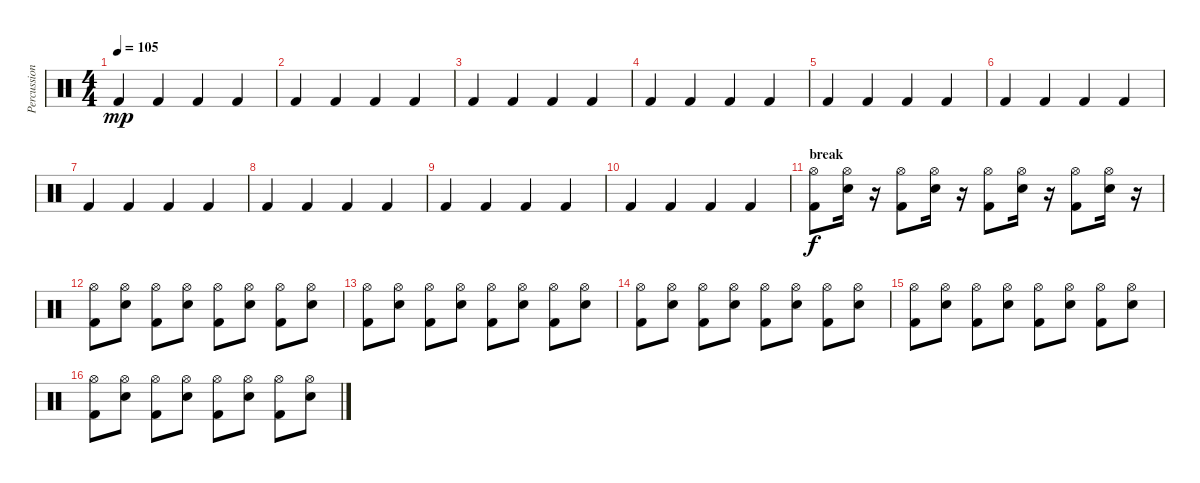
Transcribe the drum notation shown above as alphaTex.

\track ("Percussions" "Percussion") {instrument percussion}
\staff {score}
\articulation defaults
\ts (4 4)
\tempo 105
\clef neutral
\ks c "Kick (hit) 2".4{dy mp} "Kick (hit) 2".4 "Kick (hit) 2".4 "Kick (hit) 2".4
|
"Kick (hit) 2".4 "Kick (hit) 2".4 "Kick (hit) 2".4 "Kick (hit) 2".4 |
"Kick (hit) 2".4 "Kick (hit) 2".4 "Kick (hit) 2".4 "Kick (hit) 2".4 |
"Kick (hit) 2".4 "Kick (hit) 2".4 "Kick (hit) 2".4 "Kick (hit) 2".4 |
"Kick (hit) 2".4 "Kick (hit) 2".4 "Kick (hit) 2".4 "Kick (hit) 2".4 |
"Kick (hit) 2".4 "Kick (hit) 2".4 "Kick (hit) 2".4 "Kick (hit) 2".4 |
"Kick (hit) 2".4 "Kick (hit) 2".4 "Kick (hit) 2".4 "Kick (hit) 2".4 |
"Kick (hit) 2".4 "Kick (hit) 2".4 "Kick (hit) 2".4 "Kick (hit) 2".4 |
"Kick (hit) 2".4 "Kick (hit) 2".4 "Kick (hit) 2".4 "Kick (hit) 2".4 |
"Kick (hit) 2".4 "Kick (hit) 2".4 "Kick (hit) 2".4 "Kick (hit) 2".4 |
\section ("" "break")
("Hi-Hat (open)" "Kick (hit) 2").8{dy f} ("Hi-Hat (open)" "Electric Snare (hit)").16 r.16 ("Hi-Hat (open)" "Kick (hit) 2").8 ("Hi-Hat (open)" "Electric Snare (hit)").16 r.16 ("Hi-Hat (open)" "Kick (hit) 2").8 ("Hi-Hat (open)" "Electric Snare (hit)").16 r.16 ("Hi-Hat (open)" "Kick (hit) 2").8 ("Hi-Hat (open)" "Electric Snare (hit)").16 r.16 |
("Hi-Hat (open)" "Kick (hit) 2").8 ("Hi-Hat (open)" "Electric Snare (hit)").8 ("Hi-Hat (open)" "Kick (hit) 2").8 ("Hi-Hat (open)" "Electric Snare (hit)").8 ("Hi-Hat (open)" "Kick (hit) 2").8 ("Hi-Hat (open)" "Electric Snare (hit)").8 ("Hi-Hat (open)" "Kick (hit) 2").8 ("Hi-Hat (open)" "Electric Snare (hit)").8 |
("Hi-Hat (open)" "Kick (hit) 2").8 ("Hi-Hat (open)" "Electric Snare (hit)").8 ("Hi-Hat (open)" "Kick (hit) 2").8 ("Hi-Hat (open)" "Electric Snare (hit)").8 ("Hi-Hat (open)" "Kick (hit) 2").8 ("Hi-Hat (open)" "Electric Snare (hit)").8 ("Hi-Hat (open)" "Kick (hit) 2").8 ("Hi-Hat (open)" "Electric Snare (hit)").8 |
("Hi-Hat (open)" "Kick (hit) 2").8 ("Hi-Hat (open)" "Electric Snare (hit)").8 ("Hi-Hat (open)" "Kick (hit) 2").8 ("Hi-Hat (open)" "Electric Snare (hit)").8 ("Hi-Hat (open)" "Kick (hit) 2").8 ("Hi-Hat (open)" "Electric Snare (hit)").8 ("Hi-Hat (open)" "Kick (hit) 2").8 ("Hi-Hat (open)" "Electric Snare (hit)").8 |
("Hi-Hat (open)" "Kick (hit) 2").8 ("Hi-Hat (open)" "Electric Snare (hit)").8 ("Hi-Hat (open)" "Kick (hit) 2").8 ("Hi-Hat (open)" "Electric Snare (hit)").8 ("Hi-Hat (open)" "Kick (hit) 2").8 ("Hi-Hat (open)" "Electric Snare (hit)").8 ("Hi-Hat (open)" "Kick (hit) 2").8 ("Hi-Hat (open)" "Electric Snare (hit)").8 |
("Hi-Hat (open)" "Kick (hit) 2").8 ("Hi-Hat (open)" "Electric Snare (hit)").8 ("Hi-Hat (open)" "Kick (hit) 2").8 ("Hi-Hat (open)" "Electric Snare (hit)").8 ("Hi-Hat (open)" "Kick (hit) 2").8 ("Hi-Hat (open)" "Electric Snare (hit)").8 ("Hi-Hat (open)" "Kick (hit) 2").8 ("Hi-Hat (open)" "Electric Snare (hit)").8
